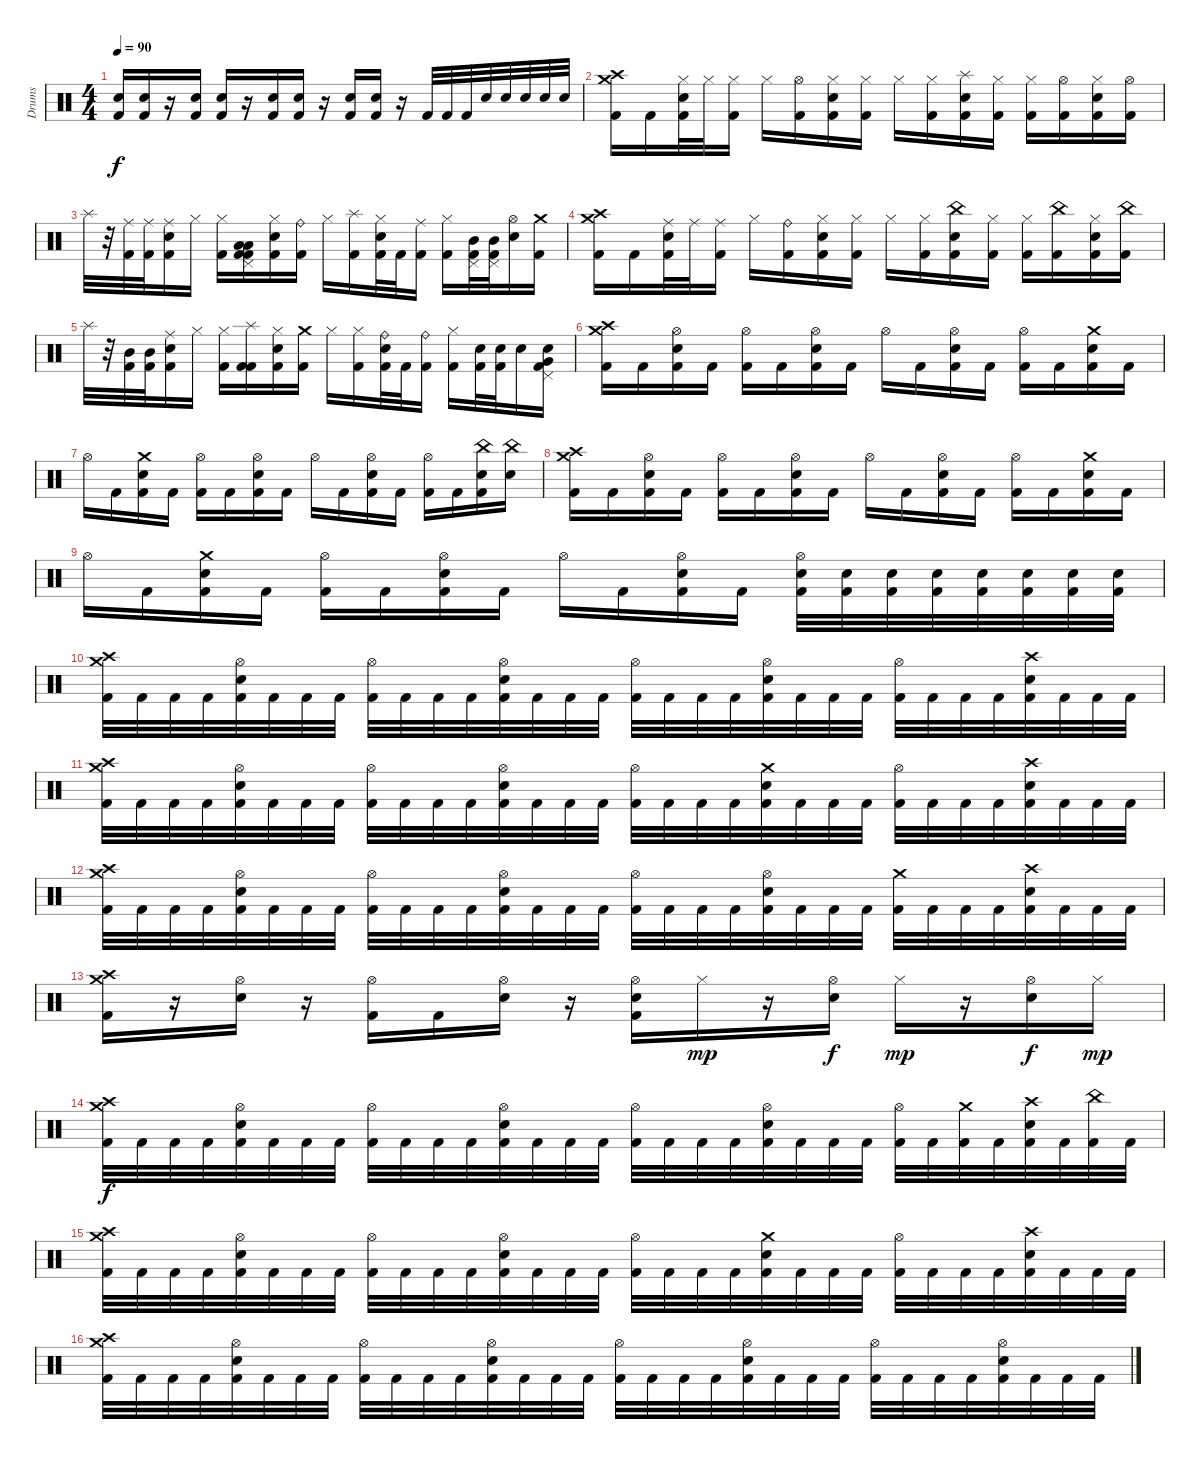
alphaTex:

\track ("Drums" "Drums") {instrument percussion}
\staff {score}
\articulation defaults
\ts (4 4)
\tempo 90
\clef neutral
\ks c
("Snare (hit) 2" "Kick (hit) 2").16{dy f} ("Snare (hit) 2" "Kick (hit) 2").16 r.16 ("Snare (hit) 2" "Kick (hit) 2").16 ("Snare (hit) 2" "Kick (hit) 2").16 r.16 ("Snare (hit) 2" "Kick (hit) 2").16 ("Snare (hit) 2" "Kick (hit) 2").16 r.16 ("Snare (hit) 2" "Kick (hit) 2").16 ("Snare (hit) 2" "Kick (hit) 2").16 r.16 "Kick (hit) 2".32 "Kick (hit) 2".32 "Kick (hit) 2".32 "Snare (hit) 2".32 "Snare (hit) 2".32 "Snare (hit) 2".32 "Snare (hit) 2".32 "Snare (hit) 2".32 |
("Crash high (hit)" "Crash medium (hit)" "Kick (hit) 2").16 "Kick (hit) 2".16 ("Hi-Hat (closed)" "Snare (hit) 2" "Kick (hit) 2").32 "Hi-Hat (closed)".32 ("Hi-Hat (closed)" "Kick (hit) 2").16 "Hi-Hat (closed)".16 ("Hi-Hat (open)" "Kick (hit) 2").16 ("Hi-Hat (closed)" "Snare (hit) 2" "Kick (hit) 2").16 ("Hi-Hat (closed)" "Kick (hit) 2").16 "Hi-Hat (closed)".16 ("Hi-Hat (closed)" "Kick (hit) 2").16 ("Splash (hit)" "Snare (hit) 2" "Kick (hit) 2").16 ("Hi-Hat (closed)" "Kick (hit) 2").16 ("Hi-Hat (closed)" "Kick (hit) 2").16 ("Hi-Hat (open)" "Kick (hit) 2").16 ("Hi-Hat (closed)" "Snare (hit) 2" "Kick (hit) 2").16 ("Hi-Hat (open)" "Kick (hit) 2").16 |
"Splash (hit)".32 r.32 ("Ride (middle)" "Kick (hit) 2").32 ("Ride (middle)" "Kick (hit) 2").32 ("Ride (middle)" "Snare (hit) 2" "Kick (hit) 2").16 "Hi-Hat (closed)".16 ("Hi-Hat (closed)" "Kick (hit) 2").16 ("Pedal Hi-Hat (hit)" "Low Tom (hit)" "Low Tom (hit)" "Kick (hit) 2" "Kick (hit) 2").16 ("Hi-Hat (closed)" "Snare (hit) 2" "Kick (hit) 2").16 ("Ride (bell)" "Kick (hit) 2").16 "Hi-Hat (closed)".16 ("Splash (hit)" "Kick (hit) 2").16 ("Hi-Hat (closed)" "Snare (hit) 2" "Kick (hit) 2").32 "Kick (hit) 2".32 ("Ride (middle)" "Kick (hit) 2").16 ("Hi-Hat (closed)" "Kick (hit) 2").16 ("Pedal Hi-Hat (hit)" "Mid Tom (hit)" "Kick (hit) 2").32 ("Pedal Hi-Hat (hit)" "Mid Tom (hit)" "Kick (hit) 2").32 ("Hi-Hat (open)" "Snare (hit) 2").16 ("Crash medium (hit)" "Kick (hit) 2").16 |
("Crash high (hit)" "Crash medium (hit)" "Kick (hit) 2").16 "Kick (hit) 2".16 ("Ride (middle)" "Snare (hit) 2" "Kick (hit) 2").32 "Ride (middle)".32 ("Ride (middle)" "Kick (hit) 2").16 "Hi-Hat (closed)".16 ("Ride (bell)" "Kick (hit) 2").16 ("Hi-Hat (closed)" "Snare (hit) 2" "Kick (hit) 2").16 ("Hi-Hat (closed)" "Kick (hit) 2").16 "Hi-Hat (closed)".16 ("Hi-Hat (closed)" "Kick (hit) 2").16 ("China (hit)" "Snare (hit) 2" "Kick (hit) 2").16 ("Hi-Hat (closed)" "Kick (hit) 2").16 ("Hi-Hat (closed)" "Kick (hit) 2").16 ("China (hit)" "Kick (hit) 2").16 ("Hi-Hat (closed)" "Snare (hit) 2" "Kick (hit) 2").16 ("China (hit)" "Kick (hit) 2").16 |
"Splash (hit)".32 r.32 ("Mid Tom (hit)" "Kick (hit) 2").32 ("Mid Tom (hit)" "Kick (hit) 2").32 ("Ride (middle)" "Snare (hit) 2" "Kick (hit) 2").16 "Hi-Hat (closed)".16 ("Hi-Hat (closed)" "Kick (hit) 2").16 ("Splash (hit)" "Kick (hit) 2" "Kick (hit) 2").16 ("Hi-Hat (closed)" "Snare (hit) 2" "Kick (hit) 2").16 ("Crash medium (hit)" "Kick (hit) 2").16 "Hi-Hat (closed)".16 ("Hi-Hat (closed)" "Kick (hit) 2").16 ("Ride (bell)" "Snare (hit) 2" "Kick (hit) 2").32 "Kick (hit) 2".32 ("Ride (bell)" "Kick (hit) 2").16 ("Hi-Hat (closed)" "Kick (hit) 2").16 ("Snare (hit) 2" "Kick (hit) 2").32 ("Snare (hit) 2" "Kick (hit) 2").32 "Snare (hit) 2".16 ("Pedal Hi-Hat (hit)" "Very Low Tom (hit)" "Snare (hit) 2" "Kick (hit) 2").16 |
("Crash high (hit)" "Crash medium (hit)" "Kick (hit) 2").16 "Kick (hit) 2".16 ("Hi-Hat (open)" "Snare (hit) 2" "Kick (hit) 2").16 "Kick (hit) 2".16 ("Hi-Hat (open)" "Kick (hit) 2").16 "Kick (hit) 2".16 ("Hi-Hat (open)" "Snare (hit) 2" "Kick (hit) 2").16 "Kick (hit) 2".16 "Hi-Hat (open)".16 "Kick (hit) 2".16 ("Hi-Hat (open)" "Snare (hit) 2" "Kick (hit) 2").16 "Kick (hit) 2".16 ("Hi-Hat (open)" "Kick (hit) 2").16 "Kick (hit) 2".16 ("Crash medium (hit)" "Snare (hit) 2" "Kick (hit) 2").16 "Kick (hit) 2".16 |
"Hi-Hat (open)".16 "Kick (hit) 2".16 ("Crash medium (hit)" "Snare (hit) 2" "Kick (hit) 2").16 "Kick (hit) 2".16 ("Hi-Hat (open)" "Kick (hit) 2").16 "Kick (hit) 2".16 ("Hi-Hat (open)" "Snare (hit) 2" "Kick (hit) 2").16 "Kick (hit) 2".16 "Hi-Hat (open)".16 "Kick (hit) 2".16 ("Hi-Hat (open)" "Snare (hit) 2" "Kick (hit) 2").16 "Kick (hit) 2".16 ("Hi-Hat (open)" "Kick (hit) 2").16 "Kick (hit) 2".16 ("China (hit)" "Snare (hit) 2" "Kick (hit) 2").16 ("China (hit)" "Snare (hit) 2").16 |
("Crash high (hit)" "Crash medium (hit)" "Kick (hit) 2").16 "Kick (hit) 2".16 ("Hi-Hat (open)" "Snare (hit) 2" "Kick (hit) 2").16 "Kick (hit) 2".16 ("Hi-Hat (open)" "Kick (hit) 2").16 "Kick (hit) 2".16 ("Hi-Hat (open)" "Snare (hit) 2" "Kick (hit) 2").16 "Kick (hit) 2".16 "Hi-Hat (open)".16 "Kick (hit) 2".16 ("Hi-Hat (open)" "Snare (hit) 2" "Kick (hit) 2").16 "Kick (hit) 2".16 ("Hi-Hat (open)" "Kick (hit) 2").16 "Kick (hit) 2".16 ("Crash medium (hit)" "Snare (hit) 2" "Kick (hit) 2").16 "Kick (hit) 2".16 |
"Hi-Hat (open)".16 "Kick (hit) 2".16 ("Crash medium (hit)" "Snare (hit) 2" "Kick (hit) 2").16 "Kick (hit) 2".16 ("Hi-Hat (open)" "Kick (hit) 2").16 "Kick (hit) 2".16 ("Hi-Hat (open)" "Snare (hit) 2" "Kick (hit) 2").16 "Kick (hit) 2".16 "Hi-Hat (open)".16 "Kick (hit) 2".16 ("Hi-Hat (open)" "Snare (hit) 2" "Kick (hit) 2").16 "Kick (hit) 2".16 ("Hi-Hat (open)" "Snare (hit) 2" "Kick (hit) 2").32 ("Snare (hit) 2" "Kick (hit) 2").32 ("Snare (hit) 2" "Kick (hit) 2").32 ("Snare (hit) 2" "Kick (hit) 2").32 ("Snare (hit) 2" "Kick (hit) 2").32 ("Snare (hit) 2" "Kick (hit) 2").32 ("Snare (hit) 2" "Kick (hit) 2").32 ("Snare (hit) 2" "Kick (hit) 2").32 |
("Crash medium (hit)" "Crash high (hit)" "Kick (hit) 2").32 "Kick (hit) 2".32 "Kick (hit) 2".32 "Kick (hit) 2".32 ("Hi-Hat (open)" "Snare (hit) 2" "Kick (hit) 2").32 "Kick (hit) 2".32 "Kick (hit) 2".32 "Kick (hit) 2".32 ("Hi-Hat (open)" "Kick (hit) 2").32 "Kick (hit) 2".32 "Kick (hit) 2".32 "Kick (hit) 2".32 ("Hi-Hat (open)" "Snare (hit) 2" "Kick (hit) 2").32 "Kick (hit) 2".32 "Kick (hit) 2".32 "Kick (hit) 2".32 ("Hi-Hat (open)" "Kick (hit) 2").32 "Kick (hit) 2".32 "Kick (hit) 2".32 "Kick (hit) 2".32 ("Hi-Hat (open)" "Snare (hit) 2" "Kick (hit) 2").32 "Kick (hit) 2".32 "Kick (hit) 2".32 "Kick (hit) 2".32 ("Hi-Hat (open)" "Kick (hit) 2").32 "Kick (hit) 2".32 "Kick (hit) 2".32 "Kick (hit) 2".32 ("Crash high (hit)" "Snare (hit) 2" "Kick (hit) 2").32 "Kick (hit) 2".32 "Kick (hit) 2".32 "Kick (hit) 2".32 |
("Crash medium (hit)" "Crash high (hit)" "Kick (hit) 2").32 "Kick (hit) 2".32 "Kick (hit) 2".32 "Kick (hit) 2".32 ("Hi-Hat (open)" "Snare (hit) 2" "Kick (hit) 2").32 "Kick (hit) 2".32 "Kick (hit) 2".32 "Kick (hit) 2".32 ("Hi-Hat (open)" "Kick (hit) 2").32 "Kick (hit) 2".32 "Kick (hit) 2".32 "Kick (hit) 2".32 ("Hi-Hat (open)" "Snare (hit) 2" "Kick (hit) 2").32 "Kick (hit) 2".32 "Kick (hit) 2".32 "Kick (hit) 2".32 ("Hi-Hat (open)" "Kick (hit) 2").32 "Kick (hit) 2".32 "Kick (hit) 2".32 "Kick (hit) 2".32 ("Crash medium (hit)" "Snare (hit) 2" "Kick (hit) 2").32 "Kick (hit) 2".32 "Kick (hit) 2".32 "Kick (hit) 2".32 ("Hi-Hat (open)" "Kick (hit) 2").32 "Kick (hit) 2".32 "Kick (hit) 2".32 "Kick (hit) 2".32 ("Crash high (hit)" "Snare (hit) 2" "Kick (hit) 2").32 "Kick (hit) 2".32 "Kick (hit) 2".32 "Kick (hit) 2".32 |
("Crash medium (hit)" "Crash high (hit)" "Kick (hit) 2").32 "Kick (hit) 2".32 "Kick (hit) 2".32 "Kick (hit) 2".32 ("Hi-Hat (open)" "Snare (hit) 2" "Kick (hit) 2").32 "Kick (hit) 2".32 "Kick (hit) 2".32 "Kick (hit) 2".32 ("Hi-Hat (open)" "Kick (hit) 2").32 "Kick (hit) 2".32 "Kick (hit) 2".32 "Kick (hit) 2".32 ("Hi-Hat (open)" "Snare (hit) 2" "Kick (hit) 2").32 "Kick (hit) 2".32 "Kick (hit) 2".32 "Kick (hit) 2".32 ("Hi-Hat (open)" "Kick (hit) 2").32 "Kick (hit) 2".32 "Kick (hit) 2".32 "Kick (hit) 2".32 ("Hi-Hat (open)" "Snare (hit) 2" "Kick (hit) 2").32 "Kick (hit) 2".32 "Kick (hit) 2".32 "Kick (hit) 2".32 ("Crash medium (hit)" "Kick (hit) 2").32 "Kick (hit) 2".32 "Kick (hit) 2".32 "Kick (hit) 2".32 ("Crash high (hit)" "Snare (hit) 2" "Kick (hit) 2").32 "Kick (hit) 2".32 "Kick (hit) 2".32 "Kick (hit) 2".32 |
("Crash medium (hit)" "Crash high (hit)" "Kick (hit) 2").16 r.16 ("Hi-Hat (open)" "Snare (hit) 2").16 r.16 ("Hi-Hat (open)" "Kick (hit) 2").16 "Kick (hit) 2".16 ("Hi-Hat (open)" "Snare (hit) 2").16 r.16 ("Hi-Hat (open)" "Snare (hit) 2" "Kick (hit) 2").16 "Hi-Hat (closed)".16{dy mp} r.16 ("Hi-Hat (open)" "Snare (hit) 2").16{dy f} "Hi-Hat (closed)".16{dy mp} r.16 ("Hi-Hat (open)" "Snare (hit) 2").16{dy f} "Hi-Hat (closed)".16{dy mp} |
("Crash medium (hit)" "Crash high (hit)" "Kick (hit) 2").32{dy f} "Kick (hit) 2".32 "Kick (hit) 2".32 "Kick (hit) 2".32 ("Hi-Hat (open)" "Snare (hit) 2" "Kick (hit) 2").32 "Kick (hit) 2".32 "Kick (hit) 2".32 "Kick (hit) 2".32 ("Hi-Hat (open)" "Kick (hit) 2").32 "Kick (hit) 2".32 "Kick (hit) 2".32 "Kick (hit) 2".32 ("Hi-Hat (open)" "Snare (hit) 2" "Kick (hit) 2").32 "Kick (hit) 2".32 "Kick (hit) 2".32 "Kick (hit) 2".32 ("Hi-Hat (open)" "Kick (hit) 2").32 "Kick (hit) 2".32 "Kick (hit) 2".32 "Kick (hit) 2".32 ("Hi-Hat (open)" "Snare (hit) 2" "Kick (hit) 2").32 "Kick (hit) 2".32 "Kick (hit) 2".32 "Kick (hit) 2".32 ("Hi-Hat (open)" "Kick (hit) 2").32 "Kick (hit) 2".32 ("Crash medium (hit)" "Kick (hit) 2").32 "Kick (hit) 2".32 ("Crash high (hit)" "Snare (hit) 2" "Kick (hit) 2").32 "Kick (hit) 2".32 ("China (hit)" "Kick (hit) 2").32 "Kick (hit) 2".32 |
("Crash medium (hit)" "Crash high (hit)" "Kick (hit) 2").32 "Kick (hit) 2".32 "Kick (hit) 2".32 "Kick (hit) 2".32 ("Hi-Hat (open)" "Snare (hit) 2" "Kick (hit) 2").32 "Kick (hit) 2".32 "Kick (hit) 2".32 "Kick (hit) 2".32 ("Hi-Hat (open)" "Kick (hit) 2").32 "Kick (hit) 2".32 "Kick (hit) 2".32 "Kick (hit) 2".32 ("Hi-Hat (open)" "Snare (hit) 2" "Kick (hit) 2").32 "Kick (hit) 2".32 "Kick (hit) 2".32 "Kick (hit) 2".32 ("Hi-Hat (open)" "Kick (hit) 2").32 "Kick (hit) 2".32 "Kick (hit) 2".32 "Kick (hit) 2".32 ("Crash medium (hit)" "Snare (hit) 2" "Kick (hit) 2").32 "Kick (hit) 2".32 "Kick (hit) 2".32 "Kick (hit) 2".32 ("Hi-Hat (open)" "Kick (hit) 2").32 "Kick (hit) 2".32 "Kick (hit) 2".32 "Kick (hit) 2".32 ("Crash high (hit)" "Snare (hit) 2" "Kick (hit) 2").32 "Kick (hit) 2".32 "Kick (hit) 2".32 "Kick (hit) 2".32 |
("Crash medium (hit)" "Crash high (hit)" "Kick (hit) 2").32 "Kick (hit) 2".32 "Kick (hit) 2".32 "Kick (hit) 2".32 ("Hi-Hat (open)" "Snare (hit) 2" "Kick (hit) 2").32 "Kick (hit) 2".32 "Kick (hit) 2".32 "Kick (hit) 2".32 ("Hi-Hat (open)" "Kick (hit) 2").32 "Kick (hit) 2".32 "Kick (hit) 2".32 "Kick (hit) 2".32 ("Hi-Hat (open)" "Snare (hit) 2" "Kick (hit) 2").32 "Kick (hit) 2".32 "Kick (hit) 2".32 "Kick (hit) 2".32 ("Hi-Hat (open)" "Kick (hit) 2").32 "Kick (hit) 2".32 "Kick (hit) 2".32 "Kick (hit) 2".32 ("Hi-Hat (open)" "Snare (hit) 2" "Kick (hit) 2").32 "Kick (hit) 2".32 "Kick (hit) 2".32 "Kick (hit) 2".32 ("Hi-Hat (open)" "Kick (hit) 2").32 "Kick (hit) 2".32 "Kick (hit) 2".32 "Kick (hit) 2".32 ("Hi-Hat (open)" "Snare (hit) 2" "Kick (hit) 2").32 "Kick (hit) 2".32 "Kick (hit) 2".32 "Kick (hit) 2".32
